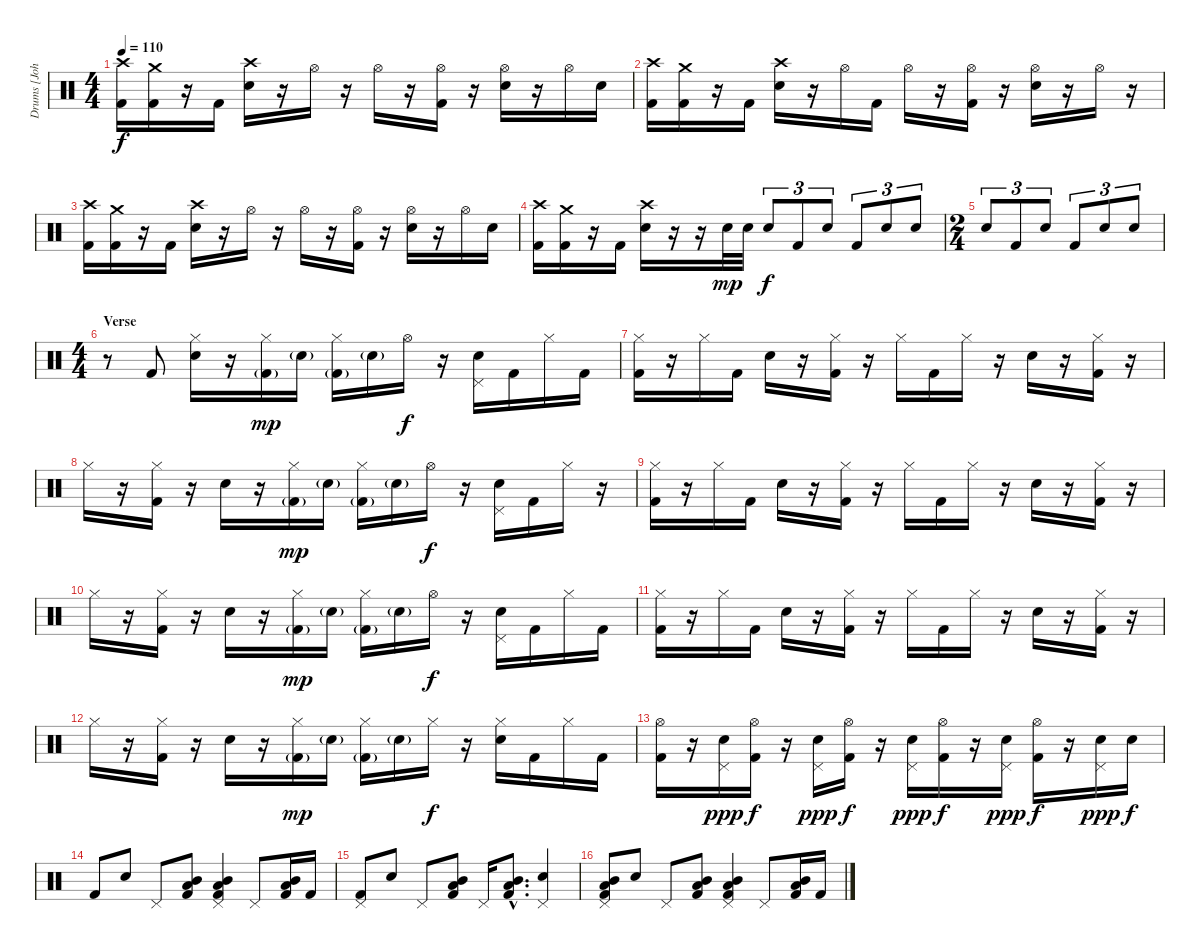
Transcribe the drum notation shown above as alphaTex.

\track ("Drums [John Otto]" "Drums [Joh") {instrument percussion}
\staff {score}
\articulation defaults
\ts (4 4)
\tempo 110
\clef neutral
\ks c
("Crash high (hit)" "Kick (hit) 2").16{dy f} ("Crash medium (hit)" "Kick (hit) 2").16 r.16 "Kick (hit) 2".16 ("Crash high (hit)" "Electric Snare (hit)").16 r.16 "Hi-Hat (open)".16 r.16 "Hi-Hat (open)".16 r.16 ("Hi-Hat (open)" "Kick (hit) 2").16 r.16 ("Hi-Hat (open)" "Electric Snare (hit)").16 r.16 "Hi-Hat (open)".16 "Electric Snare (hit)".16 |
("Crash high (hit)" "Kick (hit) 2").16 ("Crash medium (hit)" "Kick (hit) 2").16 r.16 "Kick (hit) 2".16 ("Crash high (hit)" "Electric Snare (hit)").16 r.16 "Hi-Hat (open)".16 "Kick (hit) 2".16 "Hi-Hat (open)".16 r.16 ("Hi-Hat (open)" "Kick (hit) 2").16 r.16 ("Hi-Hat (open)" "Electric Snare (hit)").16 r.16 "Hi-Hat (open)".16 r.16 |
("Crash high (hit)" "Kick (hit) 2").16 ("Crash medium (hit)" "Kick (hit) 2").16 r.16 "Kick (hit) 2".16 ("Crash high (hit)" "Electric Snare (hit)").16 r.16 "Hi-Hat (open)".16 r.16 "Hi-Hat (open)".16 r.16 ("Hi-Hat (open)" "Kick (hit) 2").16 r.16 ("Hi-Hat (open)" "Electric Snare (hit)").16 r.16 "Hi-Hat (open)".16 "Electric Snare (hit)".16 |
("Crash high (hit)" "Kick (hit) 2").16 ("Crash medium (hit)" "Kick (hit) 2").16 r.16 "Kick (hit) 2".16 ("Crash high (hit)" "Electric Snare (hit)").16 r.16 r.16 "Electric Snare (hit)".32{dy mp} "Electric Snare (hit)".32 "Electric Snare (hit)".8{tu (3 2) dy f} "Kick (hit) 2".8{tu (3 2)} "Electric Snare (hit)".8{tu (3 2)} "Kick (hit) 2".8{tu (3 2)} "Electric Snare (hit)".8{tu (3 2)} "Electric Snare (hit)".8{tu (3 2)} |
\ts (2 4)
"Electric Snare (hit)".8{tu (3 2)} "Kick (hit) 2".8{tu (3 2)} "Electric Snare (hit)".8{tu (3 2)} "Kick (hit) 2".8{tu (3 2)} "Electric Snare (hit)".8{tu (3 2)} "Electric Snare (hit)".8{tu (3 2)} |
\ts (4 4)
\section ("" "Verse")
r.8 "Kick (hit) 2".8 ("Hi-Hat (closed)" "Electric Snare (hit)").16 r.16 ("Hi-Hat (closed)" "Kick (hit) 2"{g}).16{dy mp} "Electric Snare (hit)"{g}.16 ("Hi-Hat (closed)" "Kick (hit) 2"{g}).16 "Electric Snare (hit)"{g}.16 "Hi-Hat (open)".16{dy f} r.16 ("Pedal Hi-Hat (hit)" "Electric Snare (hit)").16 "Kick (hit) 2".16 "Hi-Hat (closed)".16 "Kick (hit) 2".16 |
("Hi-Hat (closed)" "Kick (hit) 2").16 r.16 "Hi-Hat (closed)".16 "Kick (hit) 2".16 "Electric Snare (hit)".16 r.16 ("Hi-Hat (closed)" "Kick (hit) 2").16 r.16 "Hi-Hat (closed)".16 "Kick (hit) 2".16 "Hi-Hat (closed)".16 r.16 "Electric Snare (hit)".16 r.16 ("Hi-Hat (closed)" "Kick (hit) 2").16 r.16 |
"Hi-Hat (closed)".16 r.16 ("Hi-Hat (closed)" "Kick (hit) 2").16 r.16 "Electric Snare (hit)".16 r.16 ("Hi-Hat (closed)" "Kick (hit) 2"{g}).16{dy mp} "Electric Snare (hit)"{g}.16 ("Hi-Hat (closed)" "Kick (hit) 2"{g}).16 "Electric Snare (hit)"{g}.16 "Hi-Hat (open)".16{dy f} r.16 ("Pedal Hi-Hat (hit)" "Electric Snare (hit)").16 "Kick (hit) 2".16 "Hi-Hat (closed)".16 r.16 |
("Hi-Hat (closed)" "Kick (hit) 2").16 r.16 "Hi-Hat (closed)".16 "Kick (hit) 2".16 "Electric Snare (hit)".16 r.16 ("Hi-Hat (closed)" "Kick (hit) 2").16 r.16 "Hi-Hat (closed)".16 "Kick (hit) 2".16 "Hi-Hat (closed)".16 r.16 "Electric Snare (hit)".16 r.16 ("Hi-Hat (closed)" "Kick (hit) 2").16 r.16 |
"Hi-Hat (closed)".16 r.16 ("Hi-Hat (closed)" "Kick (hit) 2").16 r.16 "Electric Snare (hit)".16 r.16 ("Hi-Hat (closed)" "Kick (hit) 2"{g}).16{dy mp} "Electric Snare (hit)"{g}.16 ("Hi-Hat (closed)" "Kick (hit) 2"{g}).16 "Electric Snare (hit)"{g}.16 "Hi-Hat (open)".16{dy f} r.16 ("Pedal Hi-Hat (hit)" "Electric Snare (hit)").16 "Kick (hit) 2".16 "Hi-Hat (closed)".16 "Kick (hit) 2".16 |
("Hi-Hat (closed)" "Kick (hit) 2").16 r.16 "Hi-Hat (closed)".16 "Kick (hit) 2".16 "Electric Snare (hit)".16 r.16 ("Hi-Hat (closed)" "Kick (hit) 2").16 r.16 "Hi-Hat (closed)".16 "Kick (hit) 2".16 "Hi-Hat (closed)".16 r.16 "Electric Snare (hit)".16 r.16 ("Hi-Hat (closed)" "Kick (hit) 2").16 r.16 |
"Hi-Hat (closed)".16 r.16 ("Hi-Hat (closed)" "Kick (hit) 2").16 r.16 "Electric Snare (hit)".16 r.16 ("Hi-Hat (closed)" "Kick (hit) 2"{g}).16{dy mp} "Electric Snare (hit)"{g}.16 ("Hi-Hat (closed)" "Kick (hit) 2"{g}).16 "Electric Snare (hit)"{g}.16 "Hi-Hat (closed)".16{dy f} r.16 ("Hi-Hat (closed)" "Electric Snare (hit)").16 "Kick (hit) 2".16 "Hi-Hat (closed)".16 "Kick (hit) 2".16 |
("Hi-Hat (open)" "Kick (hit) 2").16 r.16 ("Pedal Hi-Hat (hit)" "Electric Snare (hit)").16{dy ppp} ("Hi-Hat (open)" "Kick (hit) 2").16{dy f} r.16 ("Pedal Hi-Hat (hit)" "Electric Snare (hit)").16{dy ppp} ("Hi-Hat (open)" "Kick (hit) 2").16{dy f} r.16 ("Pedal Hi-Hat (hit)" "Electric Snare (hit)").16{dy ppp} ("Hi-Hat (open)" "Kick (hit) 2").16{dy f} r.16 ("Pedal Hi-Hat (hit)" "Electric Snare (hit)").16{dy ppp} ("Hi-Hat (open)" "Kick (hit) 2").16{dy f} r.16 ("Pedal Hi-Hat (hit)" "Electric Snare (hit)").16{dy ppp} "Electric Snare (hit)".16{dy f} |
"Kick (hit) 2".8 "Electric Snare (hit)".8 "Pedal Hi-Hat (hit)".8 ("Low Tom (hit)" "Mid Tom (hit)" "Kick (hit) 2").8 ("Pedal Hi-Hat (hit)" "Low Tom (hit)" "Mid Tom (hit)" "Kick (hit) 2").4 "Pedal Hi-Hat (hit)".8 ("Low Tom (hit)" "Mid Tom (hit)" "Kick (hit) 2").16 "Kick (hit) 2".16 |
("Pedal Hi-Hat (hit)" "Kick (hit) 2").8 "Electric Snare (hit)".8 "Pedal Hi-Hat (hit)".8 ("Low Tom (hit)" "Mid Tom (hit)" "Kick (hit) 2").8 "Pedal Hi-Hat (hit)".16 ("Low Tom (hit)"{hac} "Mid Tom (hit)"{hac} "Kick (hit) 2"{hac}).8{d} ("Pedal Hi-Hat (hit)" "Electric Snare (hit)").4 |
("Pedal Hi-Hat (hit)" "Low Tom (hit)" "Mid Tom (hit)" "Kick (hit) 2").8 "Electric Snare (hit)".8 "Pedal Hi-Hat (hit)".8 ("Low Tom (hit)" "Mid Tom (hit)" "Kick (hit) 2").8 ("Pedal Hi-Hat (hit)" "Low Tom (hit)" "Mid Tom (hit)" "Kick (hit) 2").4 "Pedal Hi-Hat (hit)".8 ("Low Tom (hit)" "Mid Tom (hit)" "Kick (hit) 2").16 "Kick (hit) 2".16
